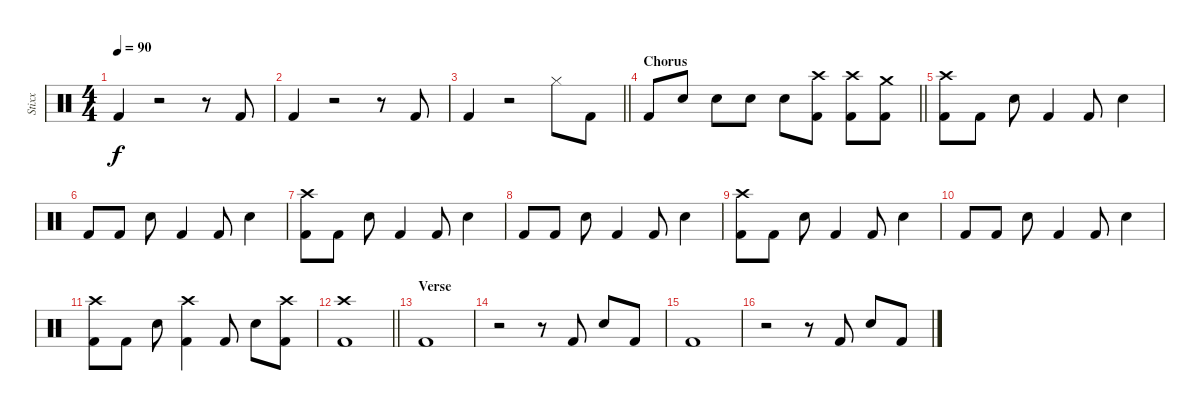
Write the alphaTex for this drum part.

\track ("Stixx" "Stixx") {instrument percussion}
\staff {score}
\articulation defaults
\ts (4 4)
\tempo 90
\clef neutral
\ks c "Kick (hit) 2".4{dy f}
r.2 r.8 "Kick (hit) 2".8 |
"Kick (hit) 2".4 r.2 r.8 "Kick (hit) 2".8 |
\barLineRight lightlight "Kick (hit) 2".4
r.2 "Hi-Hat (closed)".8 "Kick (hit) 2".8 |
\section ("" "Chorus")
\barLineRight lightlight "Kick (hit) 2".8 "Electric Snare (hit)".8 "Electric Snare (hit)".8 "Electric Snare (hit)".8 "Electric Snare (hit)".8
("Crash high (hit)" "Kick (hit) 2").8 ("Crash high (hit)" "Kick (hit) 2").8 ("Crash medium (hit)" "Kick (hit) 2").8 |
("Crash high (hit)" "Kick (hit) 2").8 "Kick (hit) 2".8 "Electric Snare (hit)".8 "Kick (hit) 2".4 "Kick (hit) 2".8 "Electric Snare (hit)".4 |
"Kick (hit) 2".8 "Kick (hit) 2".8 "Electric Snare (hit)".8 "Kick (hit) 2".4 "Kick (hit) 2".8 "Electric Snare (hit)".4 |
("Crash high (hit)" "Kick (hit) 2").8 "Kick (hit) 2".8 "Electric Snare (hit)".8 "Kick (hit) 2".4 "Kick (hit) 2".8 "Electric Snare (hit)".4 |
"Kick (hit) 2".8 "Kick (hit) 2".8 "Electric Snare (hit)".8 "Kick (hit) 2".4 "Kick (hit) 2".8 "Electric Snare (hit)".4 |
("Crash high (hit)" "Kick (hit) 2").8 "Kick (hit) 2".8 "Electric Snare (hit)".8 "Kick (hit) 2".4 "Kick (hit) 2".8 "Electric Snare (hit)".4 |
"Kick (hit) 2".8 "Kick (hit) 2".8 "Electric Snare (hit)".8 "Kick (hit) 2".4 "Kick (hit) 2".8 "Electric Snare (hit)".4 |
("Crash high (hit)" "Kick (hit) 2").8 "Kick (hit) 2".8 "Electric Snare (hit)".8 ("Crash high (hit)" "Kick (hit) 2").4 "Kick (hit) 2".8 "Electric Snare (hit)".8 ("Crash high (hit)" "Kick (hit) 2").8 |
\barLineRight lightlight
("Crash high (hit)" "Kick (hit) 2").1 |
\section ("" "Verse")
"Kick (hit) 2".1 |
r.2 r.8 "Kick (hit) 2".8 "Electric Snare (hit)".8 "Kick (hit) 2".8 |
"Kick (hit) 2".1 |
r.2 r.8 "Kick (hit) 2".8 "Electric Snare (hit)".8 "Kick (hit) 2".8
